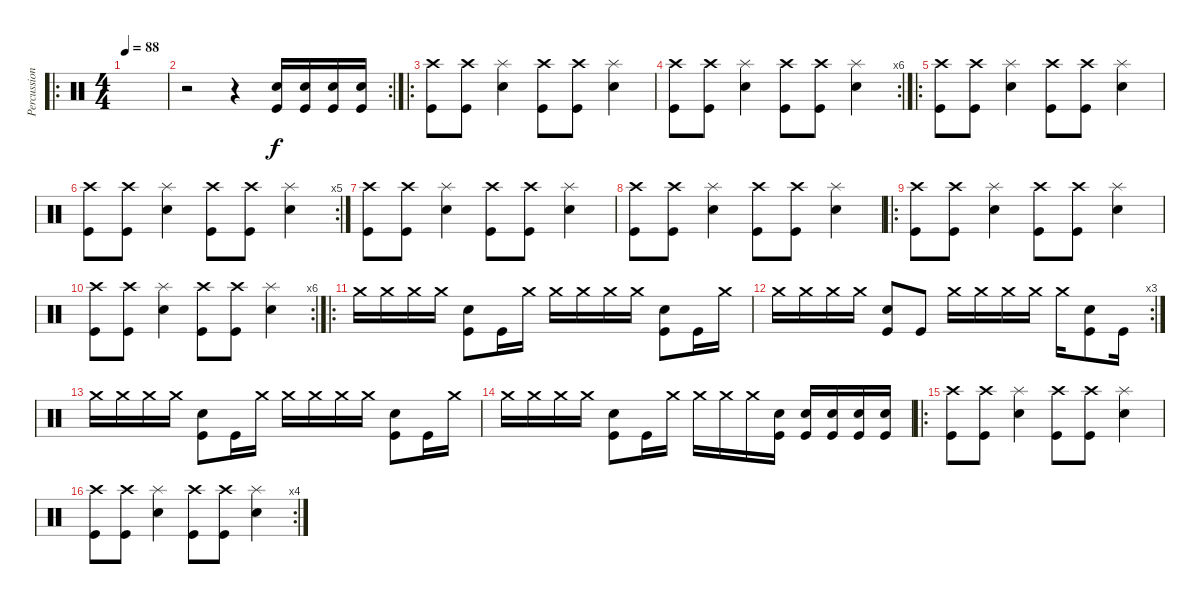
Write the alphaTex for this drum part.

\track ("Percussions" "Percussion") {instrument percussion}
\staff {score}
\articulation defaults
\ro
\ts (4 4)
\tempo 88
\clef neutral
\ks c
|
\rc 2
r.2 r.4 ("Kick (hit)" "Snare (hit) 2").16 ("Kick (hit)" "Snare (hit) 2").16 ("Kick (hit)" "Snare (hit) 2").16 ("Kick (hit)" "Snare (hit) 2").16 |
\ro
("Kick (hit)" "Crash high (hit)").8 ("Kick (hit)" "Crash high (hit)").8 ("Snare (hit) 2" "Splash (hit)").4 ("Kick (hit)" "Crash high (hit)").8 ("Kick (hit)" "Crash high (hit)").8 ("Snare (hit) 2" "Splash (hit)").4 |
\rc 6
("Kick (hit)" "Crash high (hit)").8 ("Kick (hit)" "Crash high (hit)").8 ("Snare (hit) 2" "Splash (hit)").4 ("Kick (hit)" "Crash high (hit)").8 ("Kick (hit)" "Crash high (hit)").8 ("Snare (hit) 2" "Splash (hit)").4 |
\ro
("Kick (hit)" "Crash high (hit)").8 ("Kick (hit)" "Crash high (hit)").8 ("Snare (hit) 2" "Splash (hit)").4 ("Kick (hit)" "Crash high (hit)").8 ("Kick (hit)" "Crash high (hit)").8 ("Snare (hit) 2" "Splash (hit)").4 |
\rc 5
("Kick (hit)" "Crash high (hit)").8 ("Kick (hit)" "Crash high (hit)").8 ("Snare (hit) 2" "Splash (hit)").4 ("Kick (hit)" "Crash high (hit)").8 ("Kick (hit)" "Crash high (hit)").8 ("Snare (hit) 2" "Splash (hit)").4 |
("Kick (hit)" "Crash high (hit)").8 ("Kick (hit)" "Crash high (hit)").8 ("Snare (hit) 2" "Splash (hit)").4 ("Kick (hit)" "Crash high (hit)").8 ("Kick (hit)" "Crash high (hit)").8 ("Snare (hit) 2" "Splash (hit)").4 |
("Kick (hit)" "Crash high (hit)").8 ("Kick (hit)" "Crash high (hit)").8 ("Snare (hit) 2" "Splash (hit)").4 ("Kick (hit)" "Crash high (hit)").8 ("Kick (hit)" "Crash high (hit)").8 ("Snare (hit) 2" "Splash (hit)").4 |
\ro
("Kick (hit)" "Crash high (hit)").8 ("Kick (hit)" "Crash high (hit)").8 ("Snare (hit) 2" "Splash (hit)").4 ("Kick (hit)" "Crash high (hit)").8 ("Kick (hit)" "Crash high (hit)").8 ("Snare (hit) 2" "Splash (hit)").4 |
\rc 6
("Kick (hit)" "Crash high (hit)").8 ("Kick (hit)" "Crash high (hit)").8 ("Snare (hit) 2" "Splash (hit)").4 ("Kick (hit)" "Crash high (hit)").8 ("Kick (hit)" "Crash high (hit)").8 ("Snare (hit) 2" "Splash (hit)").4 |
\ro "Crash medium (hit)".16 "Crash medium (hit)".16 "Crash medium (hit)".16 "Crash medium (hit)".16
("Snare (hit) 2" "Kick (hit)").8 "Kick (hit)".16 "Crash medium (hit)".16 "Crash medium (hit)".16 "Crash medium (hit)".16 "Crash medium (hit)".16 "Crash medium (hit)".16 ("Snare (hit) 2" "Kick (hit)").8 "Kick (hit)".16 "Crash medium (hit)".16 |
\rc 3 "Crash medium (hit)".16 "Crash medium (hit)".16 "Crash medium (hit)".16 "Crash medium (hit)".16
("Snare (hit) 2" "Kick (hit)").8 "Kick (hit)".8 "Crash medium (hit)".16 "Crash medium (hit)".16 "Crash medium (hit)".16 "Crash medium (hit)".16 "Crash medium (hit)".16 ("Snare (hit) 2" "Kick (hit)").8 "Kick (hit)".16 |
"Crash medium (hit)".16 "Crash medium (hit)".16 "Crash medium (hit)".16 "Crash medium (hit)".16 ("Snare (hit) 2" "Kick (hit)").8 "Kick (hit)".16 "Crash medium (hit)".16 "Crash medium (hit)".16 "Crash medium (hit)".16 "Crash medium (hit)".16 "Crash medium (hit)".16 ("Snare (hit) 2" "Kick (hit)").8 "Kick (hit)".16 "Crash medium (hit)".16 |
"Crash medium (hit)".16 "Crash medium (hit)".16 "Crash medium (hit)".16 "Crash medium (hit)".16 ("Snare (hit) 2" "Kick (hit)").8 "Kick (hit)".16 "Crash medium (hit)".16 "Crash medium (hit)".16 "Crash medium (hit)".16 "Crash medium (hit)".16 ("Snare (hit) 2" "Kick (hit)").16 ("Snare (hit) 2" "Kick (hit)").16 ("Snare (hit) 2" "Kick (hit)").16 ("Snare (hit) 2" "Kick (hit)").16 ("Snare (hit) 2" "Kick (hit)").16 |
\ro
("Kick (hit)" "Crash high (hit)").8 ("Kick (hit)" "Crash high (hit)").8 ("Snare (hit) 2" "Splash (hit)").4 ("Kick (hit)" "Crash high (hit)").8 ("Kick (hit)" "Crash high (hit)").8 ("Snare (hit) 2" "Splash (hit)").4 |
\rc 4
("Kick (hit)" "Crash high (hit)").8 ("Kick (hit)" "Crash high (hit)").8 ("Snare (hit) 2" "Splash (hit)").4 ("Kick (hit)" "Crash high (hit)").8 ("Kick (hit)" "Crash high (hit)").8 ("Snare (hit) 2" "Splash (hit)").4
